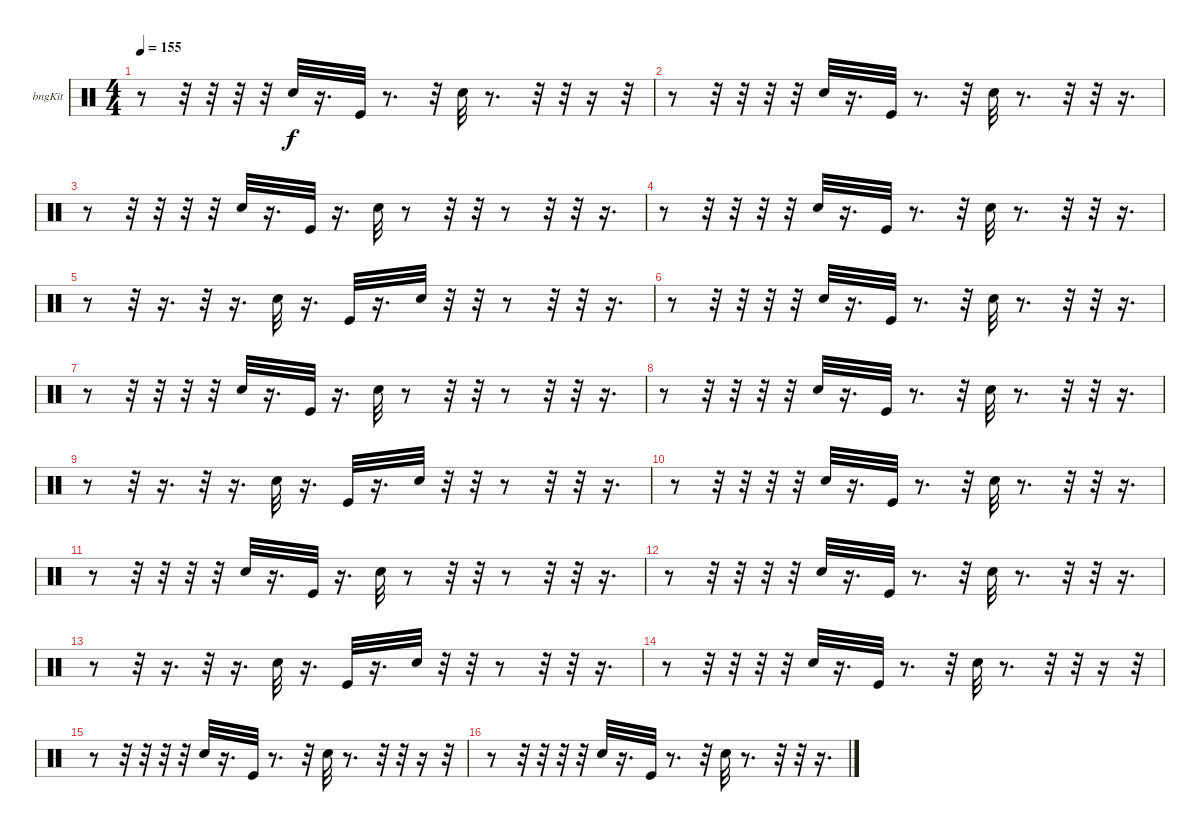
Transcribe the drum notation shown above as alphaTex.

\bracketExtendMode groupsimilarinstruments
\firstSystemTrackNameOrientation horizontal
\otherSystemsTrackNameOrientation horizontal
\track ("Е. Кулаков" "bngKit") {instrument percussion}
\staff {score}
\articulation defaults
\ts (4 4)
\tempo 155
\clef neutral
\ks c
r.8{dy f} r.32 r.32 r.32 r.32 "Snare (hit) 2".32 r.16{d} "Kick (hit)".32 r.8{d} r.32 "Snare (hit) 2".32 r.8{d} r.32 r.32 r.16 r.32 |
r.8 r.32 r.32 r.32 r.32 "Snare (hit) 2".32 r.16{d} "Kick (hit)".32 r.8{d} r.32 "Snare (hit) 2".32 r.8{d} r.32 r.32 r.16{d} |
r.8 r.32 r.32 r.32 r.32 "Snare (hit) 2".32 r.16{d} "Kick (hit)".32 r.16{d} "Snare (hit) 2".32 r.8 r.32 r.32 r.8 r.32 r.32 r.16{d} |
r.8 r.32 r.32 r.32 r.32 "Snare (hit) 2".32 r.16{d} "Kick (hit)".32 r.8{d} r.32 "Snare (hit) 2".32 r.8{d} r.32 r.32 r.16{d} |
r.8 r.32 r.16{d} r.32 r.16{d} "Snare (hit) 2".32 r.16{d} "Kick (hit)".32 r.16{d} "Snare (hit) 2".32 r.32 r.32 r.8 r.32 r.32 r.16{d} |
r.8 r.32 r.32 r.32 r.32 "Snare (hit) 2".32 r.16{d} "Kick (hit)".32 r.8{d} r.32 "Snare (hit) 2".32 r.8{d} r.32 r.32 r.16{d} |
r.8 r.32 r.32 r.32 r.32 "Snare (hit) 2".32 r.16{d} "Kick (hit)".32 r.16{d} "Snare (hit) 2".32 r.8 r.32 r.32 r.8 r.32 r.32 r.16{d} |
r.8 r.32 r.32 r.32 r.32 "Snare (hit) 2".32 r.16{d} "Kick (hit)".32 r.8{d} r.32 "Snare (hit) 2".32 r.8{d} r.32 r.32 r.16{d} |
r.8 r.32 r.16{d} r.32 r.16{d} "Snare (hit) 2".32 r.16{d} "Kick (hit)".32 r.16{d} "Snare (hit) 2".32 r.32 r.32 r.8 r.32 r.32 r.16{d} |
r.8 r.32 r.32 r.32 r.32 "Snare (hit) 2".32 r.16{d} "Kick (hit)".32 r.8{d} r.32 "Snare (hit) 2".32 r.8{d} r.32 r.32 r.16{d} |
r.8 r.32 r.32 r.32 r.32 "Snare (hit) 2".32 r.16{d} "Kick (hit)".32 r.16{d} "Snare (hit) 2".32 r.8 r.32 r.32 r.8 r.32 r.32 r.16{d} |
r.8 r.32 r.32 r.32 r.32 "Snare (hit) 2".32 r.16{d} "Kick (hit)".32 r.8{d} r.32 "Snare (hit) 2".32 r.8{d} r.32 r.32 r.16{d} |
r.8 r.32 r.16{d} r.32 r.16{d} "Snare (hit) 2".32 r.16{d} "Kick (hit)".32 r.16{d} "Snare (hit) 2".32 r.32 r.32 r.8 r.32 r.32 r.16{d} |
r.8 r.32 r.32 r.32 r.32 "Snare (hit) 2".32 r.16{d} "Kick (hit)".32 r.8{d} r.32 "Snare (hit) 2".32 r.8{d} r.32 r.32 r.16 r.32 |
r.8 r.32 r.32 r.32 r.32 "Snare (hit) 2".32 r.16{d} "Kick (hit)".32 r.8{d} r.32 "Snare (hit) 2".32 r.8{d} r.32 r.32 r.16 r.32 |
r.8 r.32 r.32 r.32 r.32 "Snare (hit) 2".32 r.16{d} "Kick (hit)".32 r.8{d} r.32 "Snare (hit) 2".32 r.8{d} r.32 r.32 r.16{d}
